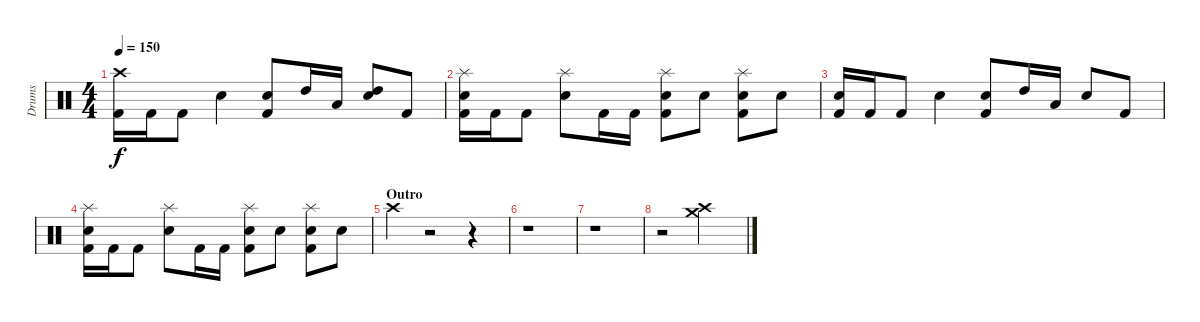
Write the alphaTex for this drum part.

\track ("Drums" "Drums") {instrument percussion}
\staff {score}
\articulation defaults
\ts (4 4)
\tempo 150
\clef neutral
\ks c
("Crash high (hit)" "Kick (hit) 2").16{dy f} "Kick (hit) 2".16 "Kick (hit) 2".8 "Electric Snare (hit)".4 ("Electric Snare (hit)" "Kick (hit) 2").8 "High Tom (hit)".16 "Low Tom (hit)".16 ("High Tom (hit)" "Electric Snare (hit)").8 "Kick (hit) 2".8 |
("Splash (hit)" "Electric Snare (hit)" "Kick (hit) 2").16 "Kick (hit) 2".16 "Kick (hit) 2".8 ("Splash (hit)" "Electric Snare (hit)").8 "Kick (hit) 2".16 "Kick (hit) 2".16 ("Splash (hit)" "Electric Snare (hit)" "Kick (hit) 2").8 "Electric Snare (hit)".8 ("Splash (hit)" "Electric Snare (hit)" "Kick (hit) 2").8 "Electric Snare (hit)".8 |
("Electric Snare (hit)" "Kick (hit) 2").16 "Kick (hit) 2".16 "Kick (hit) 2".8 "Electric Snare (hit)".4 ("Electric Snare (hit)" "Kick (hit) 2").8 "High Tom (hit)".16 "Low Tom (hit)".16 "Electric Snare (hit)".8 "Kick (hit) 2".8 |
("Splash (hit)" "Electric Snare (hit)" "Kick (hit) 2").16 "Kick (hit) 2".16 "Kick (hit) 2".8 ("Splash (hit)" "Electric Snare (hit)").8 "Kick (hit) 2".16 "Kick (hit) 2".16 ("Splash (hit)" "Electric Snare (hit)" "Kick (hit) 2").8 "Electric Snare (hit)".8 ("Splash (hit)" "Electric Snare (hit)" "Kick (hit) 2").8 "Electric Snare (hit)".8 |
\section ("" "Outro")
"Crash high (hit)".4 r.2 r.4 |
r.1 |
r.1 |
r.2 ("Crash high (hit)" "Crash medium (hit)").2
